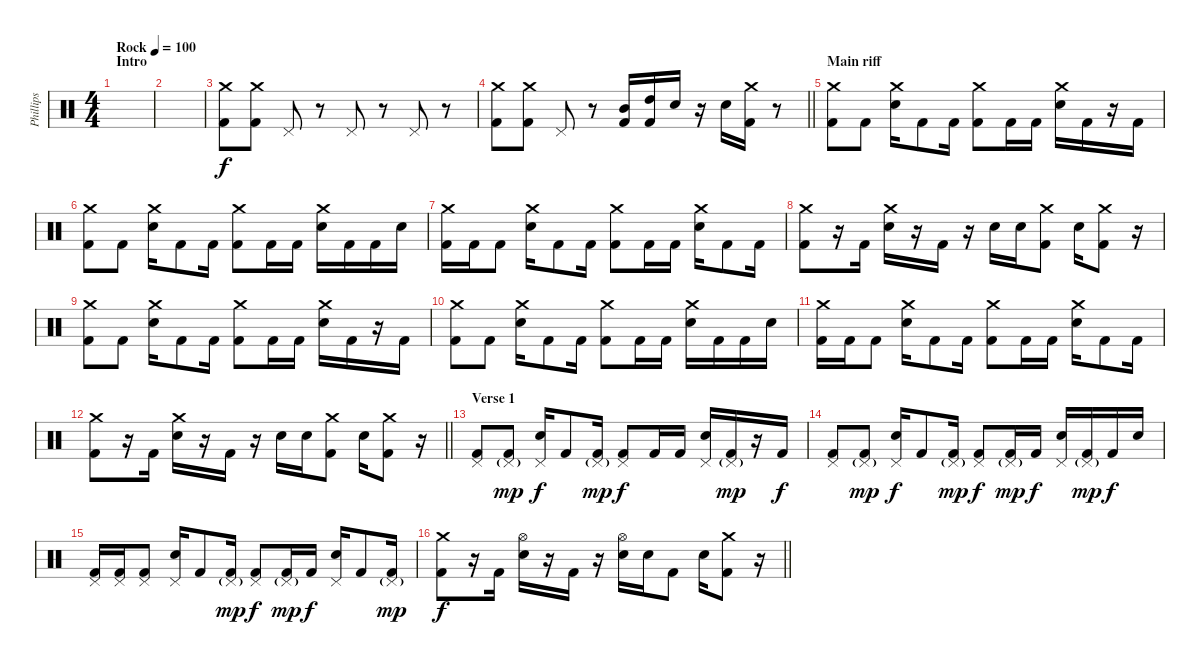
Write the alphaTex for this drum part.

\track ("Phillips" "Phillips") {instrument percussion}
\staff {score}
\articulation defaults
\ts (4 4)
\section ("" "Intro")
\tempo (100 "Rock")
\clef neutral
\ks c
|
|
("Crash medium (hit)" "Kick (hit) 2").8 ("Crash medium (hit)" "Kick (hit) 2").8 "Pedal Hi-Hat (hit)".8 r.8 "Pedal Hi-Hat (hit)".8 r.8 "Pedal Hi-Hat (hit)".8 r.8 |
\barLineRight lightlight
("Crash medium (hit)" "Kick (hit) 2").8 ("Crash medium (hit)" "Kick (hit) 2").8 "Pedal Hi-Hat (hit)".8 r.8 ("Mid Tom (hit)" "Kick (hit) 2").16 ("High Tom (hit)" "Kick (hit) 2").16 "Electric Snare (hit)".16 r.16 "Electric Snare (hit)".16 ("Crash medium (hit)" "Kick (hit) 2").16 r.8 |
\section ("" "Main riff")
("Crash medium (hit)" "Kick (hit) 2").8 "Kick (hit) 2".8 ("Crash medium (hit)" "Electric Snare (hit)").16 "Kick (hit) 2".8 "Kick (hit) 2".16 ("Crash medium (hit)" "Kick (hit) 2").8 "Kick (hit) 2".16 "Kick (hit) 2".16 ("Crash medium (hit)" "Electric Snare (hit)").16 "Kick (hit) 2".16 r.16 "Kick (hit) 2".16 |
("Crash medium (hit)" "Kick (hit) 2").8 "Kick (hit) 2".8 ("Crash medium (hit)" "Electric Snare (hit)").16 "Kick (hit) 2".8 "Kick (hit) 2".16 ("Crash medium (hit)" "Kick (hit) 2").8 "Kick (hit) 2".16 "Kick (hit) 2".16 ("Crash medium (hit)" "Electric Snare (hit)").16 "Kick (hit) 2".16 "Kick (hit) 2".16 "Electric Snare (hit)".16 |
("Crash medium (hit)" "Kick (hit) 2").16 "Kick (hit) 2".16 "Kick (hit) 2".8 ("Crash medium (hit)" "Electric Snare (hit)").16 "Kick (hit) 2".8 "Kick (hit) 2".16 ("Crash medium (hit)" "Kick (hit) 2").8 "Kick (hit) 2".16 "Kick (hit) 2".16 ("Crash medium (hit)" "Electric Snare (hit)").16 "Kick (hit) 2".8 "Kick (hit) 2".16 |
("Crash medium (hit)" "Kick (hit) 2").8 r.16 "Kick (hit) 2".16 ("Crash medium (hit)" "Electric Snare (hit)").16 r.16 "Kick (hit) 2".16 r.16 "Electric Snare (hit)".16 "Electric Snare (hit)".16 ("Crash medium (hit)" "Kick (hit) 2").8 "Electric Snare (hit)".16 ("Crash medium (hit)" "Kick (hit) 2").8 r.16 |
("Crash medium (hit)" "Kick (hit) 2").8 "Kick (hit) 2".8 ("Crash medium (hit)" "Electric Snare (hit)").16 "Kick (hit) 2".8 "Kick (hit) 2".16 ("Crash medium (hit)" "Kick (hit) 2").8 "Kick (hit) 2".16 "Kick (hit) 2".16 ("Crash medium (hit)" "Electric Snare (hit)").16 "Kick (hit) 2".16 r.16 "Kick (hit) 2".16 |
("Crash medium (hit)" "Kick (hit) 2").8 "Kick (hit) 2".8 ("Crash medium (hit)" "Electric Snare (hit)").16 "Kick (hit) 2".8 "Kick (hit) 2".16 ("Crash medium (hit)" "Kick (hit) 2").8 "Kick (hit) 2".16 "Kick (hit) 2".16 ("Crash medium (hit)" "Electric Snare (hit)").16 "Kick (hit) 2".16 "Kick (hit) 2".16 "Electric Snare (hit)".16 |
("Crash medium (hit)" "Kick (hit) 2").16 "Kick (hit) 2".16 "Kick (hit) 2".8 ("Crash medium (hit)" "Electric Snare (hit)").16 "Kick (hit) 2".8 "Kick (hit) 2".16 ("Crash medium (hit)" "Kick (hit) 2").8 "Kick (hit) 2".16 "Kick (hit) 2".16 ("Crash medium (hit)" "Electric Snare (hit)").16 "Kick (hit) 2".8 "Kick (hit) 2".16 |
\barLineRight lightlight
("Crash medium (hit)" "Kick (hit) 2").8 r.16 "Kick (hit) 2".16 ("Crash medium (hit)" "Electric Snare (hit)").16 r.16 "Kick (hit) 2".16 r.16 "Electric Snare (hit)".16 "Electric Snare (hit)".16 ("Crash medium (hit)" "Kick (hit) 2").8 "Electric Snare (hit)".16 ("Crash medium (hit)" "Kick (hit) 2").8 r.16 |
\section ("" "Verse 1")
("Pedal Hi-Hat (hit)" "Kick (hit) 2").8 ("Pedal Hi-Hat (hit)"{g} "Kick (hit) 2").8{dy mp} ("Pedal Hi-Hat (hit)" "Electric Snare (hit)").16{dy f} "Kick (hit) 2".8 ("Pedal Hi-Hat (hit)"{g} "Kick (hit) 2").16{dy mp} ("Pedal Hi-Hat (hit)" "Kick (hit) 2").8{dy f} "Kick (hit) 2".16 "Kick (hit) 2".16 ("Pedal Hi-Hat (hit)" "Electric Snare (hit)").16 ("Pedal Hi-Hat (hit)"{g} "Kick (hit) 2").16{dy mp} r.16 "Kick (hit) 2".16{dy f} |
("Pedal Hi-Hat (hit)" "Kick (hit) 2").8 ("Pedal Hi-Hat (hit)"{g} "Kick (hit) 2").8{dy mp} ("Pedal Hi-Hat (hit)" "Electric Snare (hit)").16{dy f} "Kick (hit) 2".8 ("Pedal Hi-Hat (hit)"{g} "Kick (hit) 2").16{dy mp} ("Pedal Hi-Hat (hit)" "Kick (hit) 2").8{dy f} ("Pedal Hi-Hat (hit)"{g} "Kick (hit) 2").16{dy mp} "Kick (hit) 2".16{dy f} ("Pedal Hi-Hat (hit)" "Electric Snare (hit)").16 ("Pedal Hi-Hat (hit)"{g} "Kick (hit) 2").16{dy mp} "Kick (hit) 2".16{dy f} "Electric Snare (hit)".16 |
("Pedal Hi-Hat (hit)" "Kick (hit) 2").16 ("Pedal Hi-Hat (hit)" "Kick (hit) 2").16 ("Pedal Hi-Hat (hit)" "Kick (hit) 2").8 ("Pedal Hi-Hat (hit)" "Electric Snare (hit)").16 "Kick (hit) 2".8 ("Pedal Hi-Hat (hit)"{g} "Kick (hit) 2").16{dy mp} ("Pedal Hi-Hat (hit)" "Kick (hit) 2").8{dy f} ("Pedal Hi-Hat (hit)"{g} "Kick (hit) 2").16{dy mp} "Kick (hit) 2".16{dy f} ("Pedal Hi-Hat (hit)" "Electric Snare (hit)").16 "Kick (hit) 2".8 ("Pedal Hi-Hat (hit)"{g} "Kick (hit) 2").16{dy mp} |
\barLineRight lightlight
("Crash medium (hit)" "Kick (hit) 2").8{dy f} r.16 "Kick (hit) 2".16 ("Hi-Hat (open)" "Electric Snare (hit)").16 r.16 "Kick (hit) 2".16 r.16 ("Hi-Hat (open)" "Electric Snare (hit)").16 "Electric Snare (hit)".16 "Kick (hit) 2".8 "Electric Snare (hit)".16 ("Crash medium (hit)" "Kick (hit) 2").8 r.16
